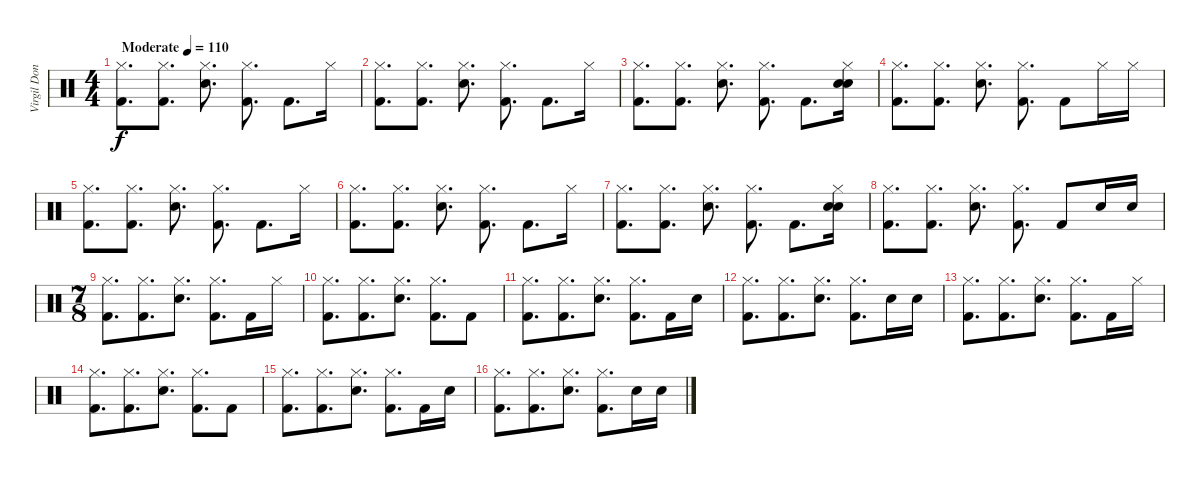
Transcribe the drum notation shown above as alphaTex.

\track ("Virgil Donati" "Virgil Don") {instrument percussion}
\staff {score}
\articulation defaults
\ts (4 4)
\tempo (110 "Moderate")
\clef neutral
\ks c
("Hi-Hat (closed)" "Kick (hit) 2").8{d dy f} ("Hi-Hat (closed)" "Kick (hit) 2").8{d} ("Hi-Hat (closed)" "Snare (hit) 2").8{d} ("Hi-Hat (closed)" "Kick (hit) 2").8{d} "Kick (hit) 2".8{d} "Hi-Hat (closed)".16 |
("Hi-Hat (closed)" "Kick (hit) 2").8{d} ("Hi-Hat (closed)" "Kick (hit) 2").8{d} ("Hi-Hat (closed)" "Snare (hit) 2").8{d} ("Hi-Hat (closed)" "Kick (hit) 2").8{d} "Kick (hit) 2".8{d} "Hi-Hat (closed)".16 |
("Hi-Hat (closed)" "Kick (hit) 2").8{d} ("Hi-Hat (closed)" "Kick (hit) 2").8{d} ("Hi-Hat (closed)" "Snare (hit) 2").8{d} ("Hi-Hat (closed)" "Kick (hit) 2").8{d} "Kick (hit) 2".8{d} ("Hi-Hat (closed)" "Snare (hit) 2" "Snare (hit)").16 |
("Hi-Hat (closed)" "Kick (hit) 2").8{d} ("Hi-Hat (closed)" "Kick (hit) 2").8{d} ("Hi-Hat (closed)" "Snare (hit) 2").8{d} ("Hi-Hat (closed)" "Kick (hit) 2").8{d} "Kick (hit) 2".8 "Hi-Hat (closed)".16 "Hi-Hat (closed)".16 |
("Hi-Hat (closed)" "Kick (hit) 2").8{d} ("Hi-Hat (closed)" "Kick (hit) 2").8{d} ("Hi-Hat (closed)" "Snare (hit) 2").8{d} ("Hi-Hat (closed)" "Kick (hit) 2").8{d} "Kick (hit) 2".8{d} "Hi-Hat (closed)".16 |
("Hi-Hat (closed)" "Kick (hit) 2").8{d} ("Hi-Hat (closed)" "Kick (hit) 2").8{d} ("Hi-Hat (closed)" "Snare (hit) 2").8{d} ("Hi-Hat (closed)" "Kick (hit) 2").8{d} "Kick (hit) 2".8{d} "Hi-Hat (closed)".16 |
("Hi-Hat (closed)" "Kick (hit) 2").8{d} ("Hi-Hat (closed)" "Kick (hit) 2").8{d} ("Hi-Hat (closed)" "Snare (hit) 2").8{d} ("Hi-Hat (closed)" "Kick (hit) 2").8{d} "Kick (hit) 2".8{d} ("Hi-Hat (closed)" "Snare (hit) 2" "Snare (hit)").16 |
("Hi-Hat (closed)" "Kick (hit) 2").8{d} ("Hi-Hat (closed)" "Kick (hit) 2").8{d} ("Hi-Hat (closed)" "Snare (hit) 2").8{d} ("Hi-Hat (closed)" "Kick (hit) 2").8{d} "Kick (hit) 2".8 "Snare (hit) 2".16 "Snare (hit) 2".16 |
\ts (7 8)
("Hi-Hat (closed)" "Kick (hit) 2").8{d} ("Hi-Hat (closed)" "Kick (hit) 2").8{d} ("Hi-Hat (closed)" "Snare (hit) 2").8{d} ("Hi-Hat (closed)" "Kick (hit) 2").8{d} "Kick (hit) 2".16 "Hi-Hat (closed)".16 |
("Hi-Hat (closed)" "Kick (hit) 2").8{d} ("Hi-Hat (closed)" "Kick (hit) 2").8{d} ("Hi-Hat (closed)" "Snare (hit) 2").8{d} ("Hi-Hat (closed)" "Kick (hit) 2").8{d} "Kick (hit) 2".8 |
("Hi-Hat (closed)" "Kick (hit) 2").8{d} ("Hi-Hat (closed)" "Kick (hit) 2").8{d} ("Hi-Hat (closed)" "Snare (hit) 2").8{d} ("Hi-Hat (closed)" "Kick (hit) 2").8{d} "Kick (hit) 2".16 "Snare (hit) 2".16 |
("Hi-Hat (closed)" "Kick (hit) 2").8{d} ("Hi-Hat (closed)" "Kick (hit) 2").8{d} ("Hi-Hat (closed)" "Snare (hit) 2").8{d} ("Hi-Hat (closed)" "Kick (hit) 2").8{d} "Snare (hit) 2".16 "Snare (hit) 2".16 |
("Hi-Hat (closed)" "Kick (hit) 2").8{d} ("Hi-Hat (closed)" "Kick (hit) 2").8{d} ("Hi-Hat (closed)" "Snare (hit) 2").8{d} ("Hi-Hat (closed)" "Kick (hit) 2").8{d} "Kick (hit) 2".16 "Hi-Hat (closed)".16 |
("Hi-Hat (closed)" "Kick (hit) 2").8{d} ("Hi-Hat (closed)" "Kick (hit) 2").8{d} ("Hi-Hat (closed)" "Snare (hit) 2").8{d} ("Hi-Hat (closed)" "Kick (hit) 2").8{d} "Kick (hit) 2".8 |
("Hi-Hat (closed)" "Kick (hit) 2").8{d} ("Hi-Hat (closed)" "Kick (hit) 2").8{d} ("Hi-Hat (closed)" "Snare (hit) 2").8{d} ("Hi-Hat (closed)" "Kick (hit) 2").8{d} "Kick (hit) 2".16 "Snare (hit) 2".16 |
("Hi-Hat (closed)" "Kick (hit) 2").8{d} ("Hi-Hat (closed)" "Kick (hit) 2").8{d} ("Hi-Hat (closed)" "Snare (hit) 2").8{d} ("Hi-Hat (closed)" "Kick (hit) 2").8{d} "Snare (hit) 2".16 "Snare (hit) 2".16
